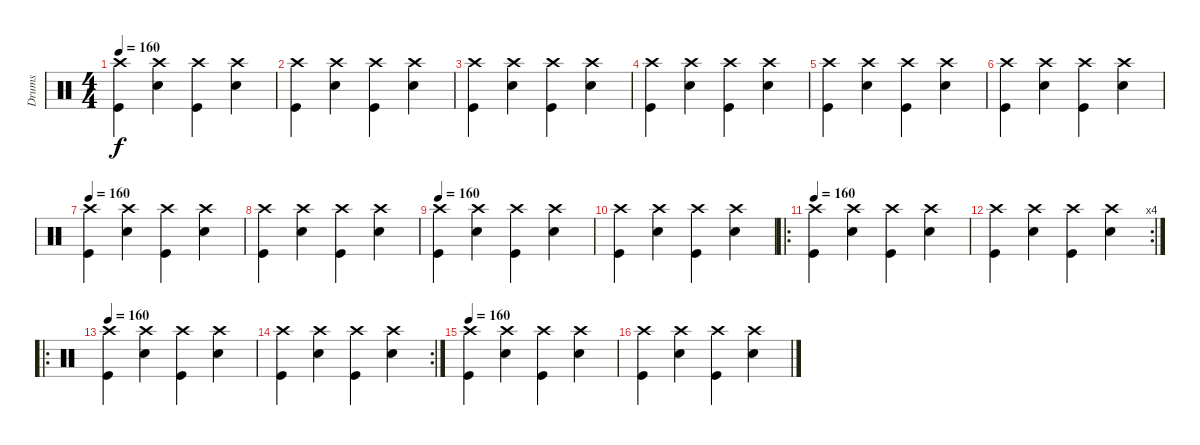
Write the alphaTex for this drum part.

\track ("Drums" "Drums") {instrument percussion}
\staff {score}
\articulation defaults
\ts (4 4)
\tempo 160
\clef neutral
\ks c
("Crash high (hit)" "Kick (hit)").4{dy f} ("Crash high (hit)" "Snare (hit) 2").4 ("Crash high (hit)" "Kick (hit)").4 ("Crash high (hit)" "Snare (hit) 2").4 |
("Crash high (hit)" "Kick (hit)").4 ("Crash high (hit)" "Snare (hit) 2").4 ("Crash high (hit)" "Kick (hit)").4 ("Crash high (hit)" "Snare (hit) 2").4 |
("Crash high (hit)" "Kick (hit)").4 ("Crash high (hit)" "Snare (hit) 2").4 ("Crash high (hit)" "Kick (hit)").4 ("Crash high (hit)" "Snare (hit) 2").4 |
("Crash high (hit)" "Kick (hit)").4 ("Crash high (hit)" "Snare (hit) 2").4 ("Crash high (hit)" "Kick (hit)").4 ("Crash high (hit)" "Snare (hit) 2").4 |
("Crash high (hit)" "Kick (hit)").4 ("Crash high (hit)" "Snare (hit) 2").4 ("Crash high (hit)" "Kick (hit)").4 ("Crash high (hit)" "Snare (hit) 2").4 |
("Crash high (hit)" "Kick (hit)").4 ("Crash high (hit)" "Snare (hit) 2").4 ("Crash high (hit)" "Kick (hit)").4 ("Crash high (hit)" "Snare (hit) 2").4 |
\tempo 160
("Crash high (hit)" "Kick (hit)").4 ("Crash high (hit)" "Snare (hit) 2").4 ("Crash high (hit)" "Kick (hit)").4 ("Crash high (hit)" "Snare (hit) 2").4 |
("Crash high (hit)" "Kick (hit)").4 ("Crash high (hit)" "Snare (hit) 2").4 ("Crash high (hit)" "Kick (hit)").4 ("Crash high (hit)" "Snare (hit) 2").4 |
\tempo 160
("Crash high (hit)" "Kick (hit)").4 ("Crash high (hit)" "Snare (hit) 2").4 ("Crash high (hit)" "Kick (hit)").4 ("Crash high (hit)" "Snare (hit) 2").4 |
("Crash high (hit)" "Kick (hit)").4 ("Crash high (hit)" "Snare (hit) 2").4 ("Crash high (hit)" "Kick (hit)").4 ("Crash high (hit)" "Snare (hit) 2").4 |
\ro
\tempo 160
("Crash high (hit)" "Kick (hit)").4 ("Crash high (hit)" "Snare (hit) 2").4 ("Crash high (hit)" "Kick (hit)").4 ("Crash high (hit)" "Snare (hit) 2").4 |
\rc 4
("Crash high (hit)" "Kick (hit)").4 ("Crash high (hit)" "Snare (hit) 2").4 ("Crash high (hit)" "Kick (hit)").4 ("Crash high (hit)" "Snare (hit) 2").4 |
\ro
\tempo 160
("Crash high (hit)" "Kick (hit)").4 ("Crash high (hit)" "Snare (hit) 2").4 ("Crash high (hit)" "Kick (hit)").4 ("Crash high (hit)" "Snare (hit) 2").4 |
\rc 2
("Crash high (hit)" "Kick (hit)").4 ("Crash high (hit)" "Snare (hit) 2").4 ("Crash high (hit)" "Kick (hit)").4 ("Crash high (hit)" "Snare (hit) 2").4 |
\tempo 160
("Crash high (hit)" "Kick (hit)").4 ("Crash high (hit)" "Snare (hit) 2").4 ("Crash high (hit)" "Kick (hit)").4 ("Crash high (hit)" "Snare (hit) 2").4 |
("Crash high (hit)" "Kick (hit)").4 ("Crash high (hit)" "Snare (hit) 2").4 ("Crash high (hit)" "Kick (hit)").4 ("Crash high (hit)" "Snare (hit) 2").4
